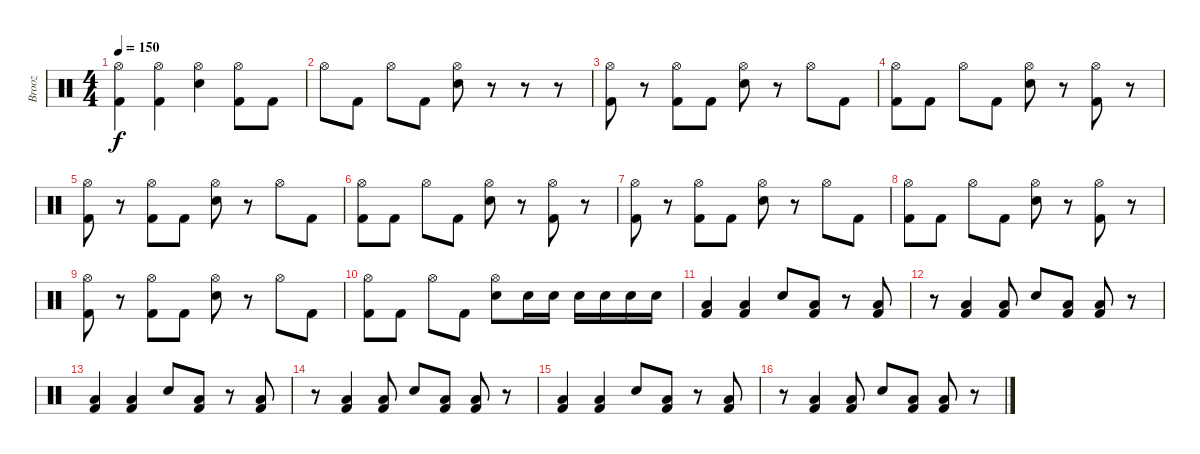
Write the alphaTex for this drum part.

\track ("Brooz" "Brooz") {instrument percussion}
\staff {score}
\articulation defaults
\ts (4 4)
\tempo 150
\clef neutral
\ks c
("Hi-Hat (open)" "Kick (hit) 2").4{dy f} ("Hi-Hat (open)" "Kick (hit) 2").4 ("Hi-Hat (open)" "Electric Snare (hit)").4 ("Hi-Hat (open)" "Kick (hit) 2").8 "Kick (hit) 2".8 |
"Hi-Hat (open)".8 "Kick (hit) 2".8 "Hi-Hat (open)".8 "Kick (hit) 2".8 ("Hi-Hat (open)" "Electric Snare (hit)").8 r.8 r.8 r.8 |
("Hi-Hat (open)" "Kick (hit) 2").8 r.8 ("Hi-Hat (open)" "Kick (hit) 2").8 "Kick (hit) 2".8 ("Hi-Hat (open)" "Electric Snare (hit)").8 r.8 "Hi-Hat (open)".8 "Kick (hit) 2".8 |
("Hi-Hat (open)" "Kick (hit) 2").8 "Kick (hit) 2".8 "Hi-Hat (open)".8 "Kick (hit) 2".8 ("Hi-Hat (open)" "Electric Snare (hit)").8 r.8 ("Hi-Hat (open)" "Kick (hit) 2").8 r.8 |
("Hi-Hat (open)" "Kick (hit) 2").8 r.8 ("Hi-Hat (open)" "Kick (hit) 2").8 "Kick (hit) 2".8 ("Hi-Hat (open)" "Electric Snare (hit)").8 r.8 "Hi-Hat (open)".8 "Kick (hit) 2".8 |
("Hi-Hat (open)" "Kick (hit) 2").8 "Kick (hit) 2".8 "Hi-Hat (open)".8 "Kick (hit) 2".8 ("Hi-Hat (open)" "Electric Snare (hit)").8 r.8 ("Hi-Hat (open)" "Kick (hit) 2").8 r.8 |
("Hi-Hat (open)" "Kick (hit) 2").8 r.8 ("Hi-Hat (open)" "Kick (hit) 2").8 "Kick (hit) 2".8 ("Hi-Hat (open)" "Electric Snare (hit)").8 r.8 "Hi-Hat (open)".8 "Kick (hit) 2".8 |
("Hi-Hat (open)" "Kick (hit) 2").8 "Kick (hit) 2".8 "Hi-Hat (open)".8 "Kick (hit) 2".8 ("Hi-Hat (open)" "Electric Snare (hit)").8 r.8 ("Hi-Hat (open)" "Kick (hit) 2").8 r.8 |
("Hi-Hat (open)" "Kick (hit) 2").8 r.8 ("Hi-Hat (open)" "Kick (hit) 2").8 "Kick (hit) 2".8 ("Hi-Hat (open)" "Electric Snare (hit)").8 r.8 "Hi-Hat (open)".8 "Kick (hit) 2".8 |
("Hi-Hat (open)" "Kick (hit) 2").8 "Kick (hit) 2".8 "Hi-Hat (open)".8 "Kick (hit) 2".8 ("Hi-Hat (open)" "Electric Snare (hit)").8 "Electric Snare (hit)".16 "Electric Snare (hit)".16 "Electric Snare (hit)".16 "Electric Snare (hit)".16 "Electric Snare (hit)".16 "Electric Snare (hit)".16 |
("Low Floor Tom (hit)" "Kick (hit) 2").4 ("Low Floor Tom (hit)" "Kick (hit) 2").4 "Electric Snare (hit)".8 ("Low Floor Tom (hit)" "Kick (hit) 2").8 r.8 ("Low Floor Tom (hit)" "Kick (hit) 2").8 |
r.8 ("Low Floor Tom (hit)" "Kick (hit) 2").4 ("Low Floor Tom (hit)" "Kick (hit) 2").8 "Electric Snare (hit)".8 ("Low Floor Tom (hit)" "Kick (hit) 2").8 ("Low Floor Tom (hit)" "Kick (hit) 2").8 r.8 |
("Low Floor Tom (hit)" "Kick (hit) 2").4 ("Low Floor Tom (hit)" "Kick (hit) 2").4 "Electric Snare (hit)".8 ("Low Floor Tom (hit)" "Kick (hit) 2").8 r.8 ("Low Floor Tom (hit)" "Kick (hit) 2").8 |
r.8 ("Low Floor Tom (hit)" "Kick (hit) 2").4 ("Low Floor Tom (hit)" "Kick (hit) 2").8 "Electric Snare (hit)".8 ("Low Floor Tom (hit)" "Kick (hit) 2").8 ("Low Floor Tom (hit)" "Kick (hit) 2").8 r.8 |
("Low Floor Tom (hit)" "Kick (hit) 2").4 ("Low Floor Tom (hit)" "Kick (hit) 2").4 "Electric Snare (hit)".8 ("Low Floor Tom (hit)" "Kick (hit) 2").8 r.8 ("Low Floor Tom (hit)" "Kick (hit) 2").8 |
r.8 ("Low Floor Tom (hit)" "Kick (hit) 2").4 ("Low Floor Tom (hit)" "Kick (hit) 2").8 "Electric Snare (hit)".8 ("Low Floor Tom (hit)" "Kick (hit) 2").8 ("Low Floor Tom (hit)" "Kick (hit) 2").8 r.8
